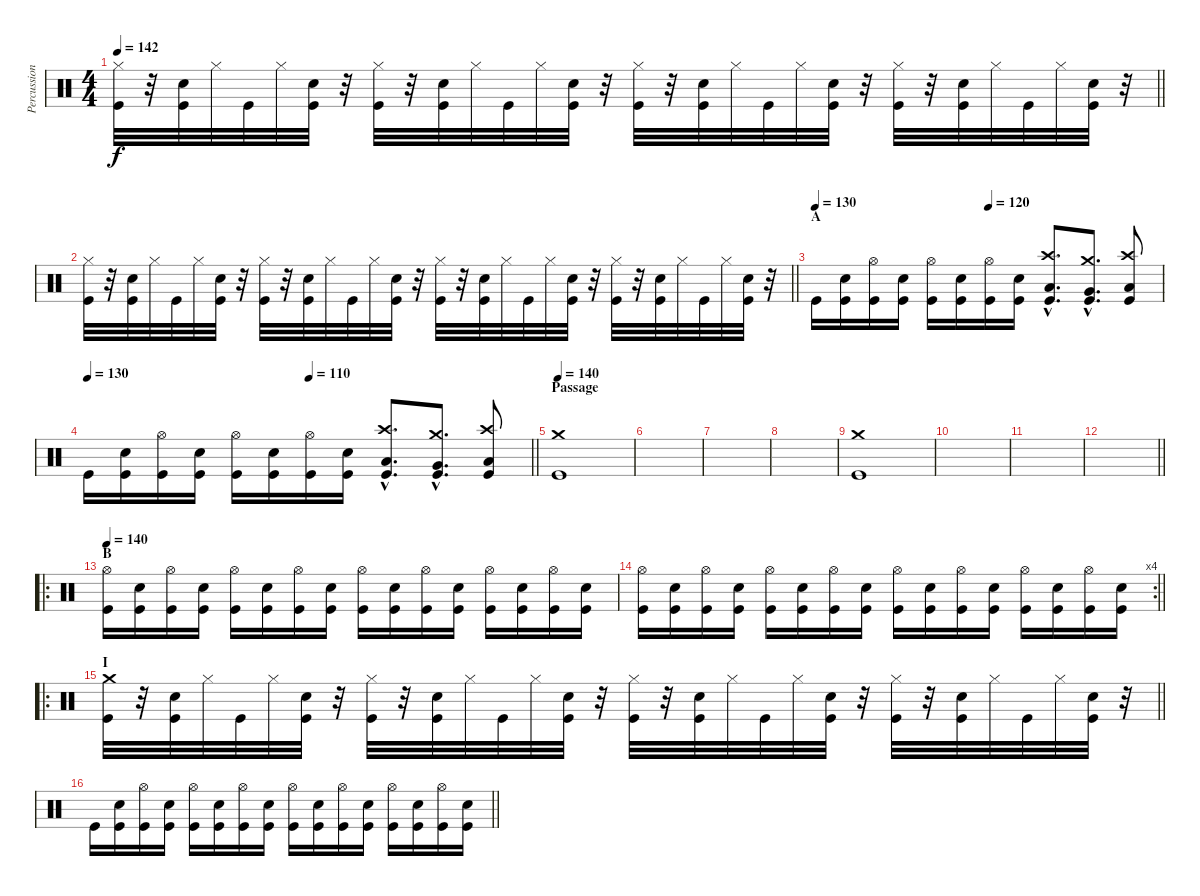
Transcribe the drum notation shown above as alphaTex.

\track ("Percussion" "Percussion") {instrument percussion}
\staff {score}
\articulation defaults
\ts (4 4)
\tempo 142
\clef neutral
\barLineRight lightlight
\ks c
("Kick (hit)" "Hi-Hat (closed)").32{dy f} r.32 ("Kick (hit)" "Snare (hit) 2").32 "Hi-Hat (closed)".32 "Kick (hit)".32 "Hi-Hat (closed)".32 ("Kick (hit)" "Snare (hit) 2").32 r.32 ("Kick (hit)" "Hi-Hat (closed)").32 r.32 ("Kick (hit)" "Snare (hit) 2").32 "Hi-Hat (closed)".32 "Kick (hit)".32 "Hi-Hat (closed)".32 ("Kick (hit)" "Snare (hit) 2").32 r.32 ("Kick (hit)" "Hi-Hat (closed)").32 r.32 ("Kick (hit)" "Snare (hit) 2").32 "Hi-Hat (closed)".32 "Kick (hit)".32 "Hi-Hat (closed)".32 ("Kick (hit)" "Snare (hit) 2").32 r.32 ("Kick (hit)" "Hi-Hat (closed)").32 r.32 ("Kick (hit)" "Snare (hit) 2").32 "Hi-Hat (closed)".32 "Kick (hit)".32 "Hi-Hat (closed)".32 ("Kick (hit)" "Snare (hit) 2").32 r.32 |
\barLineRight lightlight
("Kick (hit)" "Hi-Hat (closed)").32 r.32 ("Kick (hit)" "Snare (hit) 2").32 "Hi-Hat (closed)".32 "Kick (hit)".32 "Hi-Hat (closed)".32 ("Kick (hit)" "Snare (hit) 2").32 r.32 ("Kick (hit)" "Hi-Hat (closed)").32 r.32 ("Kick (hit)" "Snare (hit) 2").32 "Hi-Hat (closed)".32 "Kick (hit)".32 "Hi-Hat (closed)".32 ("Kick (hit)" "Snare (hit) 2").32 r.32 ("Kick (hit)" "Hi-Hat (closed)").32 r.32 ("Kick (hit)" "Snare (hit) 2").32 "Hi-Hat (closed)".32 "Kick (hit)".32 "Hi-Hat (closed)".32 ("Kick (hit)" "Snare (hit) 2").32 r.32 ("Kick (hit)" "Hi-Hat (closed)").32 r.32 ("Kick (hit)" "Snare (hit) 2").32 "Hi-Hat (closed)".32 "Kick (hit)".32 "Hi-Hat (closed)".32 ("Kick (hit)" "Snare (hit) 2").32 r.32 |
\section ("" "A")
\tempo 130
\tempo (120 0.5)
"Kick (hit)".16 ("Kick (hit)" "Snare (hit) 2").16 ("Kick (hit)" "Hi-Hat (open)").16 ("Kick (hit)" "Snare (hit) 2").16 ("Kick (hit)" "Hi-Hat (open)").16 ("Kick (hit)" "Snare (hit) 2").16 ("Kick (hit)" "Hi-Hat (open)").16 ("Kick (hit)" "Snare (hit) 2").16 ("Kick (hit)"{hac} "Crash high (hit)"{hac} "Low Tom (hit)"{hac}).8{d} ("Kick (hit)"{hac} "Crash medium (hit)"{hac} "Very Low Tom (hit)"{hac}).8{d} ("Kick (hit)" "Crash high (hit)" "Low Floor Tom (hit)").8 |
\tempo 130
\tempo (110 0.5)
\barLineRight lightlight "Kick (hit)".16
("Kick (hit)" "Snare (hit) 2").16 ("Kick (hit)" "Hi-Hat (open)").16 ("Kick (hit)" "Snare (hit) 2").16 ("Kick (hit)" "Hi-Hat (open)").16 ("Kick (hit)" "Snare (hit) 2").16 ("Kick (hit)" "Hi-Hat (open)").16 ("Kick (hit)" "Snare (hit) 2").16 ("Kick (hit)"{hac} "Crash high (hit)"{hac} "Low Tom (hit)"{hac}).8{d} ("Kick (hit)"{hac} "Crash medium (hit)"{hac} "Very Low Tom (hit)"{hac}).8{d} ("Kick (hit)" "Crash high (hit)" "Low Floor Tom (hit)").8 |
\section ("" "Passage")
\tempo 140
("Kick (hit)" "Crash medium (hit)").1 |
|
|
|
("Kick (hit)" "Crash medium (hit)").1 |
|
|
\barLineRight lightlight
|
\ro
\section ("" "B")
\tempo 140
("Kick (hit)" "Hi-Hat (open)").16 ("Kick (hit)" "Snare (hit) 2").16 ("Kick (hit)" "Hi-Hat (open)").16 ("Kick (hit)" "Snare (hit) 2").16 ("Kick (hit)" "Hi-Hat (open)").16 ("Kick (hit)" "Snare (hit) 2").16 ("Kick (hit)" "Hi-Hat (open)").16 ("Kick (hit)" "Snare (hit) 2").16 ("Kick (hit)" "Hi-Hat (open)").16 ("Kick (hit)" "Snare (hit) 2").16 ("Kick (hit)" "Hi-Hat (open)").16 ("Kick (hit)" "Snare (hit) 2").16 ("Kick (hit)" "Hi-Hat (open)").16 ("Kick (hit)" "Snare (hit) 2").16 ("Kick (hit)" "Hi-Hat (open)").16 ("Kick (hit)" "Snare (hit) 2").16 |
\rc 4
\barLineRight lightlight
("Kick (hit)" "Hi-Hat (open)").16 ("Kick (hit)" "Snare (hit) 2").16 ("Kick (hit)" "Hi-Hat (open)").16 ("Kick (hit)" "Snare (hit) 2").16 ("Kick (hit)" "Hi-Hat (open)").16 ("Kick (hit)" "Snare (hit) 2").16 ("Kick (hit)" "Hi-Hat (open)").16 ("Kick (hit)" "Snare (hit) 2").16 ("Kick (hit)" "Hi-Hat (open)").16 ("Kick (hit)" "Snare (hit) 2").16 ("Kick (hit)" "Hi-Hat (open)").16 ("Kick (hit)" "Snare (hit) 2").16 ("Kick (hit)" "Hi-Hat (open)").16 ("Kick (hit)" "Snare (hit) 2").16 ("Kick (hit)" "Hi-Hat (open)").16 ("Kick (hit)" "Snare (hit) 2").16 |
\ro
\section ("" "I")
\barLineRight lightlight
("Kick (hit)" "Crash medium (hit)").32 r.32 ("Kick (hit)" "Snare (hit) 2").32 "Hi-Hat (closed)".32 "Kick (hit)".32 "Hi-Hat (closed)".32 ("Kick (hit)" "Snare (hit) 2").32 r.32 ("Kick (hit)" "Hi-Hat (closed)").32 r.32 ("Kick (hit)" "Snare (hit) 2").32 "Hi-Hat (closed)".32 "Kick (hit)".32 "Hi-Hat (closed)".32 ("Kick (hit)" "Snare (hit) 2").32 r.32 ("Kick (hit)" "Hi-Hat (closed)").32 r.32 ("Kick (hit)" "Snare (hit) 2").32 "Hi-Hat (closed)".32 "Kick (hit)".32 "Hi-Hat (closed)".32 ("Kick (hit)" "Snare (hit) 2").32 r.32 ("Kick (hit)" "Hi-Hat (closed)").32 r.32 ("Kick (hit)" "Snare (hit) 2").32 "Hi-Hat (closed)".32 "Kick (hit)".32 "Hi-Hat (closed)".32 ("Kick (hit)" "Snare (hit) 2").32 r.32 |
\barLineRight lightlight "Kick (hit)".16
("Kick (hit)" "Snare (hit) 2").16 ("Kick (hit)" "Hi-Hat (open)").16 ("Kick (hit)" "Snare (hit) 2").16 ("Kick (hit)" "Hi-Hat (open)").16 ("Kick (hit)" "Snare (hit) 2").16 ("Kick (hit)" "Hi-Hat (open)").16 ("Kick (hit)" "Snare (hit) 2").16 ("Kick (hit)" "Hi-Hat (open)").16 ("Kick (hit)" "Snare (hit) 2").16 ("Kick (hit)" "Hi-Hat (open)").16 ("Kick (hit)" "Snare (hit) 2").16 ("Kick (hit)" "Hi-Hat (open)").16 ("Kick (hit)" "Snare (hit) 2").16 ("Kick (hit)" "Hi-Hat (open)").16 ("Kick (hit)" "Snare (hit) 2").16
